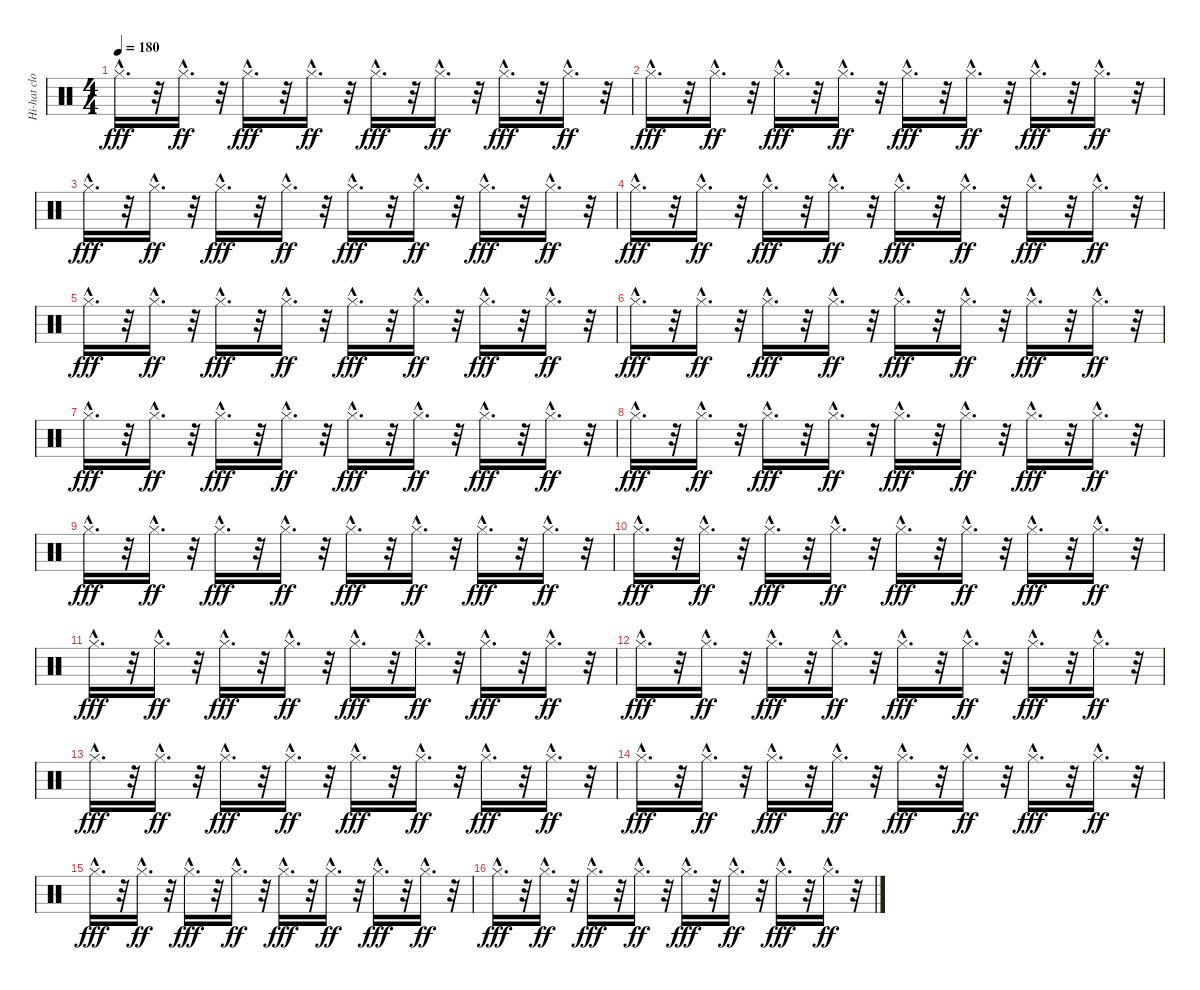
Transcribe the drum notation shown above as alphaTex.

\track ("Hi-hat closed" "Hi-hat clo") {instrument percussion}
\staff {score}
\articulation defaults
\ts (4 4)
\tempo 180
\clef neutral
\ks c "Hi-Hat (closed)"{hac}.16{d dy fff}
r.32 "Hi-Hat (closed)"{hac}.16{d dy ff} r.32 "Hi-Hat (closed)"{hac}.16{d dy fff} r.32 "Hi-Hat (closed)"{hac}.16{d dy ff} r.32 "Hi-Hat (closed)"{hac}.16{d dy fff} r.32 "Hi-Hat (closed)"{hac}.16{d dy ff} r.32 "Hi-Hat (closed)"{hac}.16{d dy fff} r.32 "Hi-Hat (closed)"{hac}.16{d dy ff} r.32 |
"Hi-Hat (closed)"{hac}.16{d dy fff} r.32 "Hi-Hat (closed)"{hac}.16{d dy ff} r.32 "Hi-Hat (closed)"{hac}.16{d dy fff} r.32 "Hi-Hat (closed)"{hac}.16{d dy ff} r.32 "Hi-Hat (closed)"{hac}.16{d dy fff} r.32 "Hi-Hat (closed)"{hac}.16{d dy ff} r.32 "Hi-Hat (closed)"{hac}.16{d dy fff} r.32 "Hi-Hat (closed)"{hac}.16{d dy ff} r.32 |
"Hi-Hat (closed)"{hac}.16{d dy fff} r.32 "Hi-Hat (closed)"{hac}.16{d dy ff} r.32 "Hi-Hat (closed)"{hac}.16{d dy fff} r.32 "Hi-Hat (closed)"{hac}.16{d dy ff} r.32 "Hi-Hat (closed)"{hac}.16{d dy fff} r.32 "Hi-Hat (closed)"{hac}.16{d dy ff} r.32 "Hi-Hat (closed)"{hac}.16{d dy fff} r.32 "Hi-Hat (closed)"{hac}.16{d dy ff} r.32 |
"Hi-Hat (closed)"{hac}.16{d dy fff} r.32 "Hi-Hat (closed)"{hac}.16{d dy ff} r.32 "Hi-Hat (closed)"{hac}.16{d dy fff} r.32 "Hi-Hat (closed)"{hac}.16{d dy ff} r.32 "Hi-Hat (closed)"{hac}.16{d dy fff} r.32 "Hi-Hat (closed)"{hac}.16{d dy ff} r.32 "Hi-Hat (closed)"{hac}.16{d dy fff} r.32 "Hi-Hat (closed)"{hac}.16{d dy ff} r.32 |
"Hi-Hat (closed)"{hac}.16{d dy fff} r.32 "Hi-Hat (closed)"{hac}.16{d dy ff} r.32 "Hi-Hat (closed)"{hac}.16{d dy fff} r.32 "Hi-Hat (closed)"{hac}.16{d dy ff} r.32 "Hi-Hat (closed)"{hac}.16{d dy fff} r.32 "Hi-Hat (closed)"{hac}.16{d dy ff} r.32 "Hi-Hat (closed)"{hac}.16{d dy fff} r.32 "Hi-Hat (closed)"{hac}.16{d dy ff} r.32 |
"Hi-Hat (closed)"{hac}.16{d dy fff} r.32 "Hi-Hat (closed)"{hac}.16{d dy ff} r.32 "Hi-Hat (closed)"{hac}.16{d dy fff} r.32 "Hi-Hat (closed)"{hac}.16{d dy ff} r.32 "Hi-Hat (closed)"{hac}.16{d dy fff} r.32 "Hi-Hat (closed)"{hac}.16{d dy ff} r.32 "Hi-Hat (closed)"{hac}.16{d dy fff} r.32 "Hi-Hat (closed)"{hac}.16{d dy ff} r.32 |
"Hi-Hat (closed)"{hac}.16{d dy fff} r.32 "Hi-Hat (closed)"{hac}.16{d dy ff} r.32 "Hi-Hat (closed)"{hac}.16{d dy fff} r.32 "Hi-Hat (closed)"{hac}.16{d dy ff} r.32 "Hi-Hat (closed)"{hac}.16{d dy fff} r.32 "Hi-Hat (closed)"{hac}.16{d dy ff} r.32 "Hi-Hat (closed)"{hac}.16{d dy fff} r.32 "Hi-Hat (closed)"{hac}.16{d dy ff} r.32 |
"Hi-Hat (closed)"{hac}.16{d dy fff} r.32 "Hi-Hat (closed)"{hac}.16{d dy ff} r.32 "Hi-Hat (closed)"{hac}.16{d dy fff} r.32 "Hi-Hat (closed)"{hac}.16{d dy ff} r.32 "Hi-Hat (closed)"{hac}.16{d dy fff} r.32 "Hi-Hat (closed)"{hac}.16{d dy ff} r.32 "Hi-Hat (closed)"{hac}.16{d dy fff} r.32 "Hi-Hat (closed)"{hac}.16{d dy ff} r.32 |
"Hi-Hat (closed)"{hac}.16{d dy fff} r.32 "Hi-Hat (closed)"{hac}.16{d dy ff} r.32 "Hi-Hat (closed)"{hac}.16{d dy fff} r.32 "Hi-Hat (closed)"{hac}.16{d dy ff} r.32 "Hi-Hat (closed)"{hac}.16{d dy fff} r.32 "Hi-Hat (closed)"{hac}.16{d dy ff} r.32 "Hi-Hat (closed)"{hac}.16{d dy fff} r.32 "Hi-Hat (closed)"{hac}.16{d dy ff} r.32 |
"Hi-Hat (closed)"{hac}.16{d dy fff} r.32 "Hi-Hat (closed)"{hac}.16{d dy ff} r.32 "Hi-Hat (closed)"{hac}.16{d dy fff} r.32 "Hi-Hat (closed)"{hac}.16{d dy ff} r.32 "Hi-Hat (closed)"{hac}.16{d dy fff} r.32 "Hi-Hat (closed)"{hac}.16{d dy ff} r.32 "Hi-Hat (closed)"{hac}.16{d dy fff} r.32 "Hi-Hat (closed)"{hac}.16{d dy ff} r.32 |
"Hi-Hat (closed)"{hac}.16{d dy fff} r.32 "Hi-Hat (closed)"{hac}.16{d dy ff} r.32 "Hi-Hat (closed)"{hac}.16{d dy fff} r.32 "Hi-Hat (closed)"{hac}.16{d dy ff} r.32 "Hi-Hat (closed)"{hac}.16{d dy fff} r.32 "Hi-Hat (closed)"{hac}.16{d dy ff} r.32 "Hi-Hat (closed)"{hac}.16{d dy fff} r.32 "Hi-Hat (closed)"{hac}.16{d dy ff} r.32 |
"Hi-Hat (closed)"{hac}.16{d dy fff} r.32 "Hi-Hat (closed)"{hac}.16{d dy ff} r.32 "Hi-Hat (closed)"{hac}.16{d dy fff} r.32 "Hi-Hat (closed)"{hac}.16{d dy ff} r.32 "Hi-Hat (closed)"{hac}.16{d dy fff} r.32 "Hi-Hat (closed)"{hac}.16{d dy ff} r.32 "Hi-Hat (closed)"{hac}.16{d dy fff} r.32 "Hi-Hat (closed)"{hac}.16{d dy ff} r.32 |
"Hi-Hat (closed)"{hac}.16{d dy fff} r.32 "Hi-Hat (closed)"{hac}.16{d dy ff} r.32 "Hi-Hat (closed)"{hac}.16{d dy fff} r.32 "Hi-Hat (closed)"{hac}.16{d dy ff} r.32 "Hi-Hat (closed)"{hac}.16{d dy fff} r.32 "Hi-Hat (closed)"{hac}.16{d dy ff} r.32 "Hi-Hat (closed)"{hac}.16{d dy fff} r.32 "Hi-Hat (closed)"{hac}.16{d dy ff} r.32 |
"Hi-Hat (closed)"{hac}.16{d dy fff} r.32 "Hi-Hat (closed)"{hac}.16{d dy ff} r.32 "Hi-Hat (closed)"{hac}.16{d dy fff} r.32 "Hi-Hat (closed)"{hac}.16{d dy ff} r.32 "Hi-Hat (closed)"{hac}.16{d dy fff} r.32 "Hi-Hat (closed)"{hac}.16{d dy ff} r.32 "Hi-Hat (closed)"{hac}.16{d dy fff} r.32 "Hi-Hat (closed)"{hac}.16{d dy ff} r.32 |
"Hi-Hat (closed)"{hac}.16{d dy fff} r.32 "Hi-Hat (closed)"{hac}.16{d dy ff} r.32 "Hi-Hat (closed)"{hac}.16{d dy fff} r.32 "Hi-Hat (closed)"{hac}.16{d dy ff} r.32 "Hi-Hat (closed)"{hac}.16{d dy fff} r.32 "Hi-Hat (closed)"{hac}.16{d dy ff} r.32 "Hi-Hat (closed)"{hac}.16{d dy fff} r.32 "Hi-Hat (closed)"{hac}.16{d dy ff} r.32 |
"Hi-Hat (closed)"{hac}.16{d dy fff} r.32 "Hi-Hat (closed)"{hac}.16{d dy ff} r.32 "Hi-Hat (closed)"{hac}.16{d dy fff} r.32 "Hi-Hat (closed)"{hac}.16{d dy ff} r.32 "Hi-Hat (closed)"{hac}.16{d dy fff} r.32 "Hi-Hat (closed)"{hac}.16{d dy ff} r.32 "Hi-Hat (closed)"{hac}.16{d dy fff} r.32 "Hi-Hat (closed)"{hac}.16{d dy ff} r.32
